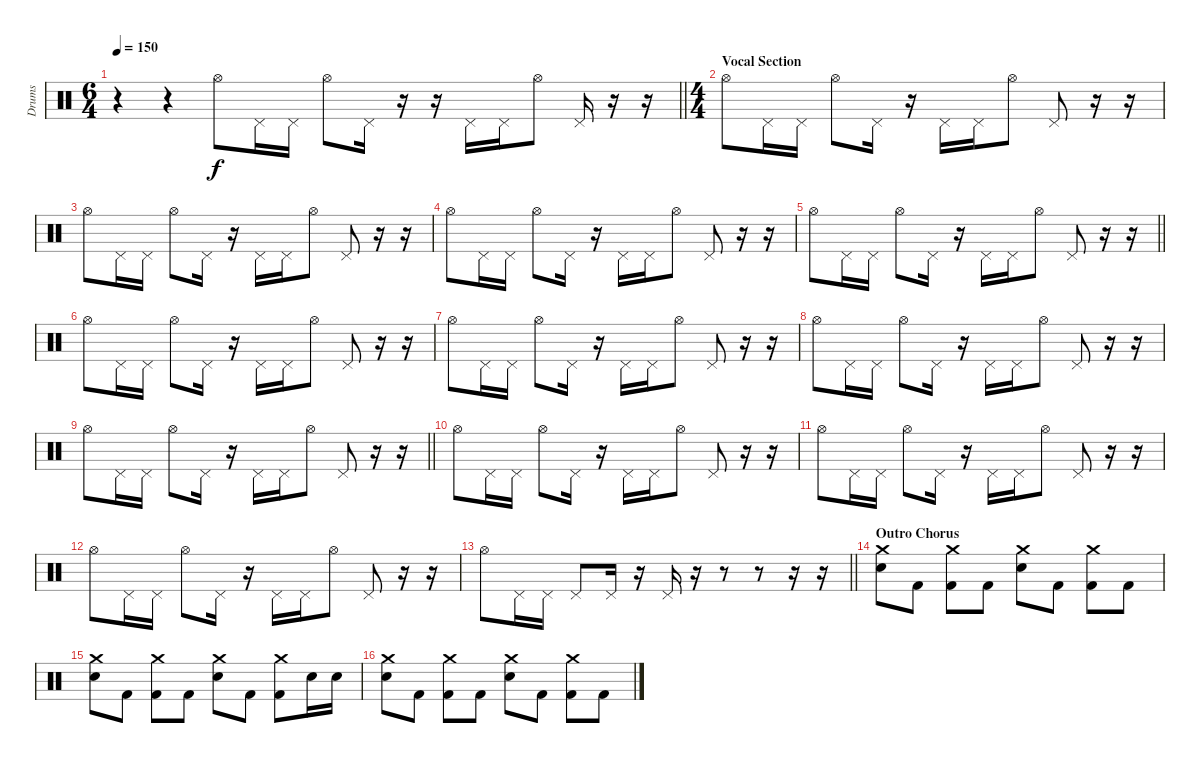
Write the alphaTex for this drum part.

\track ("Drums" "Drums") {instrument percussion}
\staff {score}
\articulation defaults
\ts (6 4)
\tempo 150
\clef neutral
\barLineRight lightlight
\ks c
r.4{dy f} r.4 "Hi-Hat (open)".8 "Pedal Hi-Hat (hit)".16 "Pedal Hi-Hat (hit)".16 "Hi-Hat (open)".8 "Pedal Hi-Hat (hit)".16 r.16 r.16 "Pedal Hi-Hat (hit)".16 "Pedal Hi-Hat (hit)".16 "Hi-Hat (open)".8 "Pedal Hi-Hat (hit)".16 r.16 r.16 |
\ts (4 4)
\section ("" "Vocal Section")
"Hi-Hat (open)".8 "Pedal Hi-Hat (hit)".16 "Pedal Hi-Hat (hit)".16 "Hi-Hat (open)".8 "Pedal Hi-Hat (hit)".16 r.16 "Pedal Hi-Hat (hit)".16 "Pedal Hi-Hat (hit)".16 "Hi-Hat (open)".8 "Pedal Hi-Hat (hit)".8 r.16 r.16 |
"Hi-Hat (open)".8 "Pedal Hi-Hat (hit)".16 "Pedal Hi-Hat (hit)".16 "Hi-Hat (open)".8 "Pedal Hi-Hat (hit)".16 r.16 "Pedal Hi-Hat (hit)".16 "Pedal Hi-Hat (hit)".16 "Hi-Hat (open)".8 "Pedal Hi-Hat (hit)".8 r.16 r.16 |
"Hi-Hat (open)".8 "Pedal Hi-Hat (hit)".16 "Pedal Hi-Hat (hit)".16 "Hi-Hat (open)".8 "Pedal Hi-Hat (hit)".16 r.16 "Pedal Hi-Hat (hit)".16 "Pedal Hi-Hat (hit)".16 "Hi-Hat (open)".8 "Pedal Hi-Hat (hit)".8 r.16 r.16 |
\barLineRight lightlight "Hi-Hat (open)".8 "Pedal Hi-Hat (hit)".16 "Pedal Hi-Hat (hit)".16 "Hi-Hat (open)".8 "Pedal Hi-Hat (hit)".16
r.16 "Pedal Hi-Hat (hit)".16 "Pedal Hi-Hat (hit)".16 "Hi-Hat (open)".8 "Pedal Hi-Hat (hit)".8 r.16 r.16 |
"Hi-Hat (open)".8 "Pedal Hi-Hat (hit)".16 "Pedal Hi-Hat (hit)".16 "Hi-Hat (open)".8 "Pedal Hi-Hat (hit)".16 r.16 "Pedal Hi-Hat (hit)".16 "Pedal Hi-Hat (hit)".16 "Hi-Hat (open)".8 "Pedal Hi-Hat (hit)".8 r.16 r.16 |
"Hi-Hat (open)".8 "Pedal Hi-Hat (hit)".16 "Pedal Hi-Hat (hit)".16 "Hi-Hat (open)".8 "Pedal Hi-Hat (hit)".16 r.16 "Pedal Hi-Hat (hit)".16 "Pedal Hi-Hat (hit)".16 "Hi-Hat (open)".8 "Pedal Hi-Hat (hit)".8 r.16 r.16 |
"Hi-Hat (open)".8 "Pedal Hi-Hat (hit)".16 "Pedal Hi-Hat (hit)".16 "Hi-Hat (open)".8 "Pedal Hi-Hat (hit)".16 r.16 "Pedal Hi-Hat (hit)".16 "Pedal Hi-Hat (hit)".16 "Hi-Hat (open)".8 "Pedal Hi-Hat (hit)".8 r.16 r.16 |
\barLineRight lightlight "Hi-Hat (open)".8 "Pedal Hi-Hat (hit)".16 "Pedal Hi-Hat (hit)".16 "Hi-Hat (open)".8 "Pedal Hi-Hat (hit)".16
r.16 "Pedal Hi-Hat (hit)".16 "Pedal Hi-Hat (hit)".16 "Hi-Hat (open)".8 "Pedal Hi-Hat (hit)".8 r.16 r.16 |
"Hi-Hat (open)".8 "Pedal Hi-Hat (hit)".16 "Pedal Hi-Hat (hit)".16 "Hi-Hat (open)".8 "Pedal Hi-Hat (hit)".16 r.16 "Pedal Hi-Hat (hit)".16 "Pedal Hi-Hat (hit)".16 "Hi-Hat (open)".8 "Pedal Hi-Hat (hit)".8 r.16 r.16 |
"Hi-Hat (open)".8 "Pedal Hi-Hat (hit)".16 "Pedal Hi-Hat (hit)".16 "Hi-Hat (open)".8 "Pedal Hi-Hat (hit)".16 r.16 "Pedal Hi-Hat (hit)".16 "Pedal Hi-Hat (hit)".16 "Hi-Hat (open)".8 "Pedal Hi-Hat (hit)".8 r.16 r.16 |
"Hi-Hat (open)".8 "Pedal Hi-Hat (hit)".16 "Pedal Hi-Hat (hit)".16 "Hi-Hat (open)".8 "Pedal Hi-Hat (hit)".16 r.16 "Pedal Hi-Hat (hit)".16 "Pedal Hi-Hat (hit)".16 "Hi-Hat (open)".8 "Pedal Hi-Hat (hit)".8 r.16 r.16 |
\barLineRight lightlight "Hi-Hat (open)".8 "Pedal Hi-Hat (hit)".16 "Pedal Hi-Hat (hit)".16 "Pedal Hi-Hat (hit)".8 "Pedal Hi-Hat (hit)".16
r.16 "Pedal Hi-Hat (hit)".16 r.16 r.8 r.8 r.16 r.16 |
\section ("" "Outro Chorus")
("Crash medium (hit)" "Electric Snare (hit)").8 "Kick (hit) 2".8 ("Crash medium (hit)" "Kick (hit) 2").8 "Kick (hit) 2".8 ("Crash medium (hit)" "Electric Snare (hit)").8 "Kick (hit) 2".8 ("Crash medium (hit)" "Kick (hit) 2").8 "Kick (hit) 2".8 |
("Crash medium (hit)" "Electric Snare (hit)").8 "Kick (hit) 2".8 ("Crash medium (hit)" "Kick (hit) 2").8 "Kick (hit) 2".8 ("Crash medium (hit)" "Electric Snare (hit)").8 "Kick (hit) 2".8 ("Crash medium (hit)" "Kick (hit) 2").8 "Electric Snare (hit)".16 "Electric Snare (hit)".16 |
("Crash medium (hit)" "Electric Snare (hit)").8 "Kick (hit) 2".8 ("Crash medium (hit)" "Kick (hit) 2").8 "Kick (hit) 2".8 ("Crash medium (hit)" "Electric Snare (hit)").8 "Kick (hit) 2".8 ("Crash medium (hit)" "Kick (hit) 2").8 "Kick (hit) 2".8
